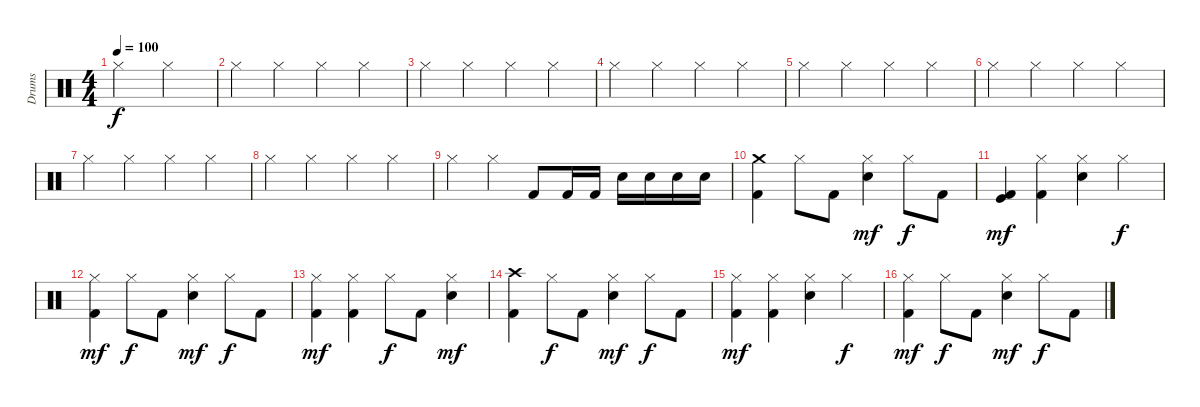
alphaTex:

\track ("Drums" "Drums") {instrument percussion}
\staff {score}
\articulation defaults
\ts (4 4)
\tempo 100
\clef neutral
\ks c "Hi-Hat (closed)".2{dy f} "Hi-Hat (closed)".2
|
"Hi-Hat (closed)".4 "Hi-Hat (closed)".4 "Hi-Hat (closed)".4 "Hi-Hat (closed)".4 |
"Hi-Hat (closed)".4 "Hi-Hat (closed)".4 "Hi-Hat (closed)".4 "Hi-Hat (closed)".4 |
"Hi-Hat (closed)".4 "Hi-Hat (closed)".4 "Hi-Hat (closed)".4 "Hi-Hat (closed)".4 |
"Hi-Hat (closed)".4 "Hi-Hat (closed)".4 "Hi-Hat (closed)".4 "Hi-Hat (closed)".4 |
"Hi-Hat (closed)".4 "Hi-Hat (closed)".4 "Hi-Hat (closed)".4 "Hi-Hat (closed)".4 |
"Hi-Hat (closed)".4 "Hi-Hat (closed)".4 "Hi-Hat (closed)".4 "Hi-Hat (closed)".4 |
"Hi-Hat (closed)".4 "Hi-Hat (closed)".4 "Hi-Hat (closed)".4 "Hi-Hat (closed)".4 |
"Hi-Hat (closed)".4 "Hi-Hat (closed)".4 "Kick (hit) 2".8 "Kick (hit) 2".16 "Kick (hit) 2".16 "Snare (hit) 2".16 "Snare (hit) 2".16 "Snare (hit) 2".16 "Snare (hit) 2".16 |
("Crash medium (hit)" "Kick (hit) 2").4 "Hi-Hat (closed)".8 "Kick (hit) 2".8 ("Hi-Hat (closed)" "Snare (hit) 2").4{dy mf} "Hi-Hat (closed)".8{dy f} "Kick (hit) 2".8 |
("Kick (hit)" "Kick (hit) 2").4{dy mf} ("Hi-Hat (closed)" "Kick (hit) 2").4 ("Hi-Hat (closed)" "Snare (hit) 2").4 "Hi-Hat (closed)".4{dy f} |
("Hi-Hat (closed)" "Kick (hit) 2").4{dy mf} "Hi-Hat (closed)".8{dy f} "Kick (hit) 2".8 ("Hi-Hat (closed)" "Snare (hit) 2").4{dy mf} "Hi-Hat (closed)".8{dy f} "Kick (hit) 2".8 |
("Hi-Hat (closed)" "Kick (hit) 2").4{dy mf} ("Hi-Hat (closed)" "Kick (hit) 2").4 "Hi-Hat (closed)".8{dy f} "Kick (hit) 2".8 ("Hi-Hat (closed)" "Snare (hit) 2").4{dy mf} |
("Crash high (hit)" "Kick (hit) 2").4 "Hi-Hat (closed)".8{dy f} "Kick (hit) 2".8 ("Hi-Hat (closed)" "Snare (hit) 2").4{dy mf} "Hi-Hat (closed)".8{dy f} "Kick (hit) 2".8 |
("Hi-Hat (closed)" "Kick (hit) 2").4{dy mf} ("Hi-Hat (closed)" "Kick (hit) 2").4 ("Hi-Hat (closed)" "Snare (hit) 2").4 "Hi-Hat (closed)".4{dy f} |
("Hi-Hat (closed)" "Kick (hit) 2").4{dy mf} "Hi-Hat (closed)".8{dy f} "Kick (hit) 2".8 ("Hi-Hat (closed)" "Snare (hit) 2").4{dy mf} "Hi-Hat (closed)".8{dy f} "Kick (hit) 2".8
